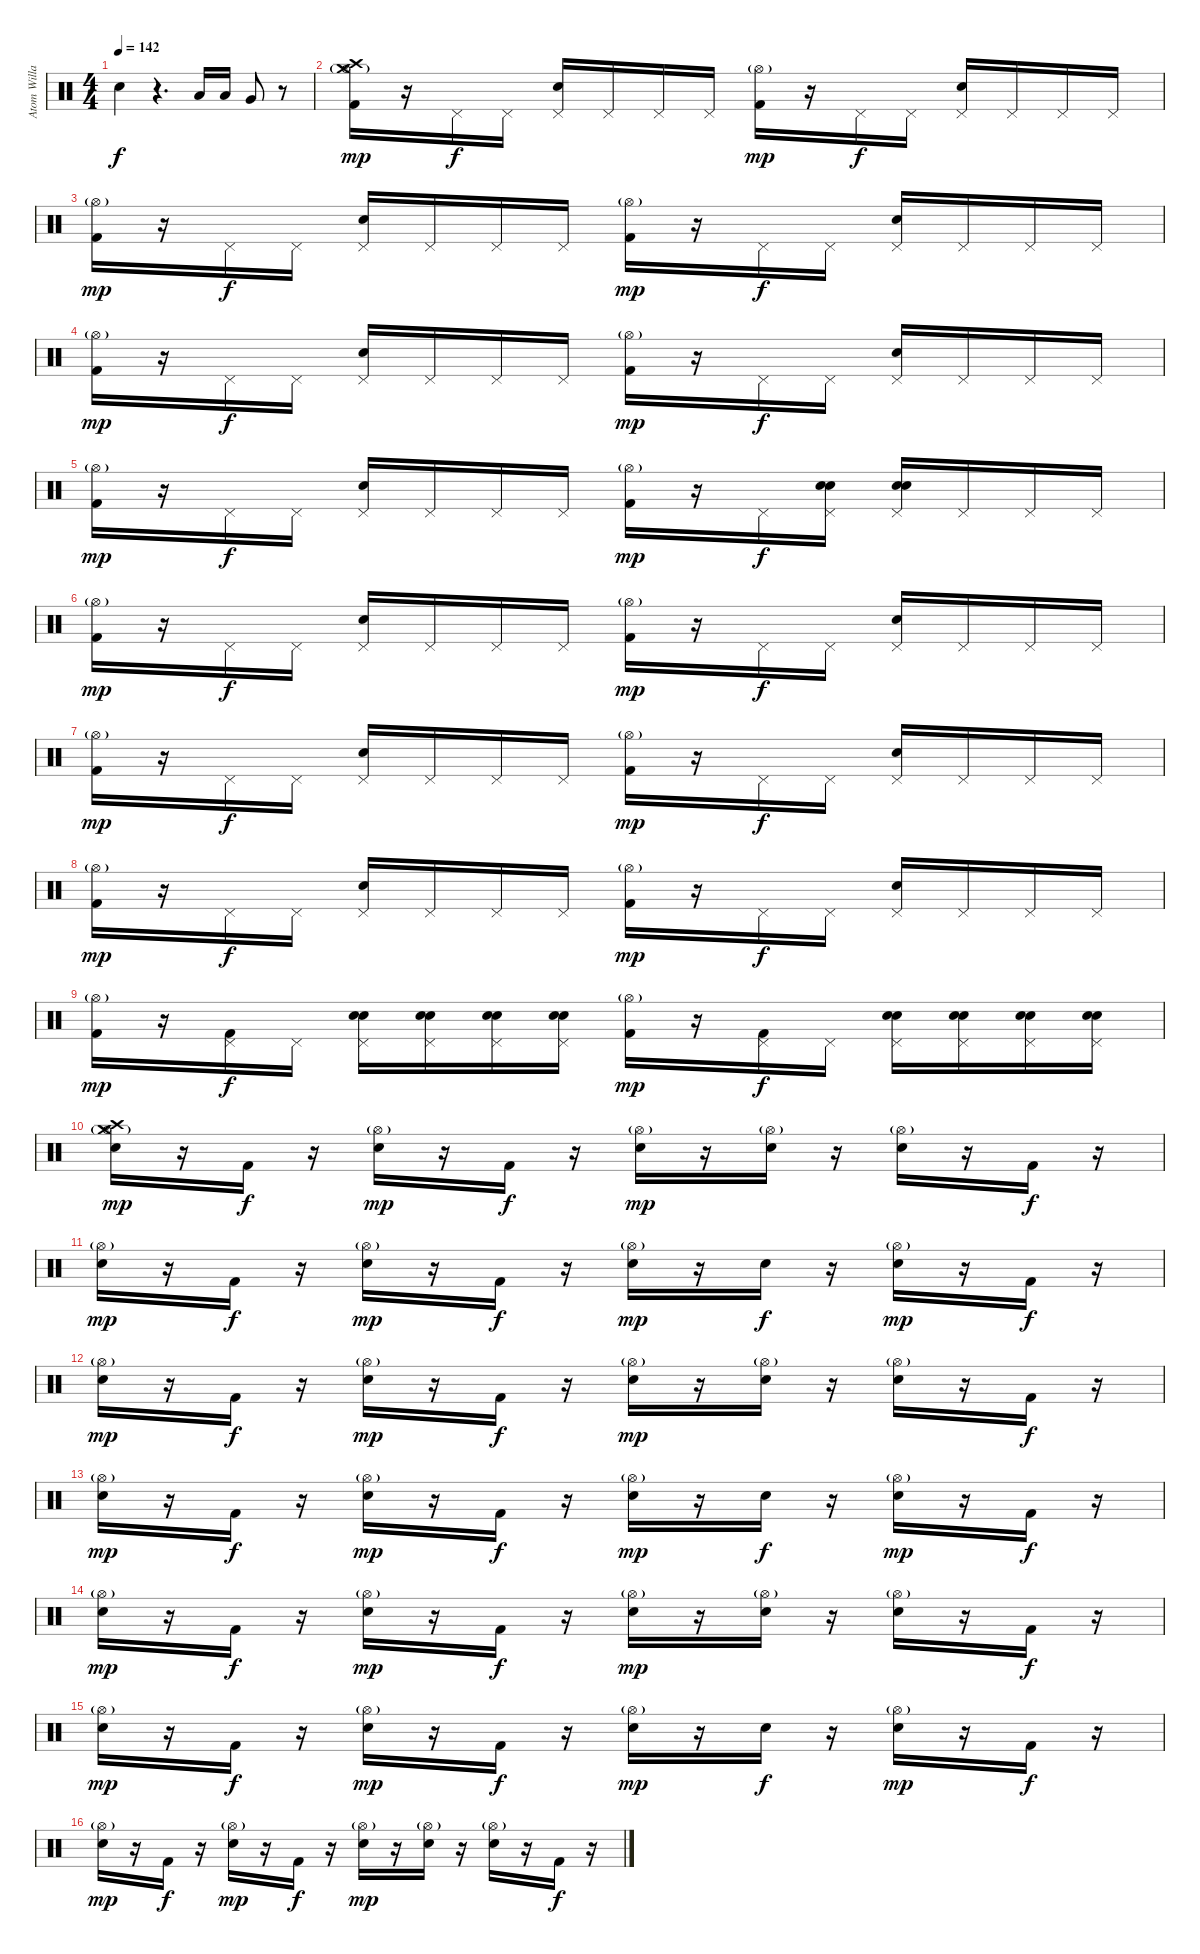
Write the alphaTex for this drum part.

\track ("Atom Willard" "Atom Willa") {instrument percussion}
\staff {score}
\articulation defaults
\ts (4 4)
\tempo 142
\clef neutral
\ks c "Electric Snare (hit)".4{dy f}
r.4{d} "Low Tom (hit)".16 "Low Tom (hit)".16 "Very Low Tom (hit)".8 r.8 |
("Crash high (hit)" "Crash medium (hit)" "Hi-Hat (open)"{g} "Kick (hit) 2").16{dy mp} r.16 "Pedal Hi-Hat (hit)".16{dy f} "Pedal Hi-Hat (hit)".16 ("Pedal Hi-Hat (hit)" "Electric Snare (hit)").16 "Pedal Hi-Hat (hit)".16 "Pedal Hi-Hat (hit)".16 "Pedal Hi-Hat (hit)".16 ("Hi-Hat (open)"{g} "Kick (hit) 2").16{dy mp} r.16 "Pedal Hi-Hat (hit)".16{dy f} "Pedal Hi-Hat (hit)".16 ("Pedal Hi-Hat (hit)" "Electric Snare (hit)").16 "Pedal Hi-Hat (hit)".16 "Pedal Hi-Hat (hit)".16 "Pedal Hi-Hat (hit)".16 |
("Hi-Hat (open)"{g} "Kick (hit) 2").16{dy mp} r.16 "Pedal Hi-Hat (hit)".16{dy f} "Pedal Hi-Hat (hit)".16 ("Pedal Hi-Hat (hit)" "Electric Snare (hit)").16 "Pedal Hi-Hat (hit)".16 "Pedal Hi-Hat (hit)".16 "Pedal Hi-Hat (hit)".16 ("Hi-Hat (open)"{g} "Kick (hit) 2").16{dy mp} r.16 "Pedal Hi-Hat (hit)".16{dy f} "Pedal Hi-Hat (hit)".16 ("Pedal Hi-Hat (hit)" "Electric Snare (hit)").16 "Pedal Hi-Hat (hit)".16 "Pedal Hi-Hat (hit)".16 "Pedal Hi-Hat (hit)".16 |
("Hi-Hat (open)"{g} "Kick (hit) 2").16{dy mp} r.16 "Pedal Hi-Hat (hit)".16{dy f} "Pedal Hi-Hat (hit)".16 ("Pedal Hi-Hat (hit)" "Electric Snare (hit)").16 "Pedal Hi-Hat (hit)".16 "Pedal Hi-Hat (hit)".16 "Pedal Hi-Hat (hit)".16 ("Hi-Hat (open)"{g} "Kick (hit) 2").16{dy mp} r.16 "Pedal Hi-Hat (hit)".16{dy f} "Pedal Hi-Hat (hit)".16 ("Pedal Hi-Hat (hit)" "Electric Snare (hit)").16 "Pedal Hi-Hat (hit)".16 "Pedal Hi-Hat (hit)".16 "Pedal Hi-Hat (hit)".16 |
("Hi-Hat (open)"{g} "Kick (hit) 2").16{dy mp} r.16 "Pedal Hi-Hat (hit)".16{dy f} "Pedal Hi-Hat (hit)".16 ("Pedal Hi-Hat (hit)" "Electric Snare (hit)").16 "Pedal Hi-Hat (hit)".16 "Pedal Hi-Hat (hit)".16 "Pedal Hi-Hat (hit)".16 ("Hi-Hat (open)"{g} "Kick (hit) 2").16{dy mp} r.16 "Pedal Hi-Hat (hit)".16{dy f} ("Pedal Hi-Hat (hit)" "Snare (hit) 2" "Electric Snare (hit)").16 ("Pedal Hi-Hat (hit)" "Snare (hit) 2" "Electric Snare (hit)").16 "Pedal Hi-Hat (hit)".16 "Pedal Hi-Hat (hit)".16 "Pedal Hi-Hat (hit)".16 |
("Hi-Hat (open)"{g} "Kick (hit) 2").16{dy mp} r.16 "Pedal Hi-Hat (hit)".16{dy f} "Pedal Hi-Hat (hit)".16 ("Pedal Hi-Hat (hit)" "Electric Snare (hit)").16 "Pedal Hi-Hat (hit)".16 "Pedal Hi-Hat (hit)".16 "Pedal Hi-Hat (hit)".16 ("Hi-Hat (open)"{g} "Kick (hit) 2").16{dy mp} r.16 "Pedal Hi-Hat (hit)".16{dy f} "Pedal Hi-Hat (hit)".16 ("Pedal Hi-Hat (hit)" "Electric Snare (hit)").16 "Pedal Hi-Hat (hit)".16 "Pedal Hi-Hat (hit)".16 "Pedal Hi-Hat (hit)".16 |
("Hi-Hat (open)"{g} "Kick (hit) 2").16{dy mp} r.16 "Pedal Hi-Hat (hit)".16{dy f} "Pedal Hi-Hat (hit)".16 ("Pedal Hi-Hat (hit)" "Electric Snare (hit)").16 "Pedal Hi-Hat (hit)".16 "Pedal Hi-Hat (hit)".16 "Pedal Hi-Hat (hit)".16 ("Hi-Hat (open)"{g} "Kick (hit) 2").16{dy mp} r.16 "Pedal Hi-Hat (hit)".16{dy f} "Pedal Hi-Hat (hit)".16 ("Pedal Hi-Hat (hit)" "Electric Snare (hit)").16 "Pedal Hi-Hat (hit)".16 "Pedal Hi-Hat (hit)".16 "Pedal Hi-Hat (hit)".16 |
("Hi-Hat (open)"{g} "Kick (hit) 2").16{dy mp} r.16 "Pedal Hi-Hat (hit)".16{dy f} "Pedal Hi-Hat (hit)".16 ("Pedal Hi-Hat (hit)" "Electric Snare (hit)").16 "Pedal Hi-Hat (hit)".16 "Pedal Hi-Hat (hit)".16 "Pedal Hi-Hat (hit)".16 ("Hi-Hat (open)"{g} "Kick (hit) 2").16{dy mp} r.16 "Pedal Hi-Hat (hit)".16{dy f} "Pedal Hi-Hat (hit)".16 ("Pedal Hi-Hat (hit)" "Electric Snare (hit)").16 "Pedal Hi-Hat (hit)".16 "Pedal Hi-Hat (hit)".16 "Pedal Hi-Hat (hit)".16 |
("Hi-Hat (open)"{g} "Kick (hit) 2").16{dy mp} r.16 ("Pedal Hi-Hat (hit)" "Kick (hit) 2").16{dy f} "Pedal Hi-Hat (hit)".16 ("Pedal Hi-Hat (hit)" "Snare (hit) 2" "Electric Snare (hit)").16 ("Pedal Hi-Hat (hit)" "Snare (hit) 2" "Electric Snare (hit)").16 ("Pedal Hi-Hat (hit)" "Snare (hit) 2" "Electric Snare (hit)").16 ("Pedal Hi-Hat (hit)" "Snare (hit) 2" "Electric Snare (hit)").16 ("Hi-Hat (open)"{g} "Kick (hit) 2").16{dy mp} r.16 ("Pedal Hi-Hat (hit)" "Kick (hit) 2").16{dy f} "Pedal Hi-Hat (hit)".16 ("Pedal Hi-Hat (hit)" "Snare (hit) 2" "Electric Snare (hit)").16 ("Pedal Hi-Hat (hit)" "Snare (hit) 2" "Electric Snare (hit)").16 ("Pedal Hi-Hat (hit)" "Snare (hit) 2" "Electric Snare (hit)").16 ("Pedal Hi-Hat (hit)" "Snare (hit) 2" "Electric Snare (hit)").16 |
("Crash high (hit)" "Crash medium (hit)" "Hi-Hat (open)"{g} "Electric Snare (hit)").16{dy mp} r.16 "Kick (hit) 2".16{dy f} r.16 ("Hi-Hat (open)"{g} "Electric Snare (hit)").16{dy mp} r.16 "Kick (hit) 2".16{dy f} r.16 ("Hi-Hat (open)"{g} "Electric Snare (hit)").16{dy mp} r.16 ("Hi-Hat (open)"{g} "Electric Snare (hit)").16 r.16 ("Hi-Hat (open)"{g} "Electric Snare (hit)").16 r.16 "Kick (hit) 2".16{dy f} r.16 |
("Hi-Hat (open)"{g} "Electric Snare (hit)").16{dy mp} r.16 "Kick (hit) 2".16{dy f} r.16 ("Hi-Hat (open)"{g} "Electric Snare (hit)").16{dy mp} r.16 "Kick (hit) 2".16{dy f} r.16 ("Hi-Hat (open)"{g} "Electric Snare (hit)").16{dy mp} r.16 "Electric Snare (hit)".16{dy f} r.16 ("Hi-Hat (open)"{g} "Electric Snare (hit)").16{dy mp} r.16 "Kick (hit) 2".16{dy f} r.16 |
("Hi-Hat (open)"{g} "Electric Snare (hit)").16{dy mp} r.16 "Kick (hit) 2".16{dy f} r.16 ("Hi-Hat (open)"{g} "Electric Snare (hit)").16{dy mp} r.16 "Kick (hit) 2".16{dy f} r.16 ("Hi-Hat (open)"{g} "Electric Snare (hit)").16{dy mp} r.16 ("Hi-Hat (open)"{g} "Electric Snare (hit)").16 r.16 ("Hi-Hat (open)"{g} "Electric Snare (hit)").16 r.16 "Kick (hit) 2".16{dy f} r.16 |
("Hi-Hat (open)"{g} "Electric Snare (hit)").16{dy mp} r.16 "Kick (hit) 2".16{dy f} r.16 ("Hi-Hat (open)"{g} "Electric Snare (hit)").16{dy mp} r.16 "Kick (hit) 2".16{dy f} r.16 ("Hi-Hat (open)"{g} "Electric Snare (hit)").16{dy mp} r.16 "Electric Snare (hit)".16{dy f} r.16 ("Hi-Hat (open)"{g} "Electric Snare (hit)").16{dy mp} r.16 "Kick (hit) 2".16{dy f} r.16 |
("Hi-Hat (open)"{g} "Electric Snare (hit)").16{dy mp} r.16 "Kick (hit) 2".16{dy f} r.16 ("Hi-Hat (open)"{g} "Electric Snare (hit)").16{dy mp} r.16 "Kick (hit) 2".16{dy f} r.16 ("Hi-Hat (open)"{g} "Electric Snare (hit)").16{dy mp} r.16 ("Hi-Hat (open)"{g} "Electric Snare (hit)").16 r.16 ("Hi-Hat (open)"{g} "Electric Snare (hit)").16 r.16 "Kick (hit) 2".16{dy f} r.16 |
("Hi-Hat (open)"{g} "Electric Snare (hit)").16{dy mp} r.16 "Kick (hit) 2".16{dy f} r.16 ("Hi-Hat (open)"{g} "Electric Snare (hit)").16{dy mp} r.16 "Kick (hit) 2".16{dy f} r.16 ("Hi-Hat (open)"{g} "Electric Snare (hit)").16{dy mp} r.16 "Electric Snare (hit)".16{dy f} r.16 ("Hi-Hat (open)"{g} "Electric Snare (hit)").16{dy mp} r.16 "Kick (hit) 2".16{dy f} r.16 |
("Hi-Hat (open)"{g} "Electric Snare (hit)").16{dy mp} r.16 "Kick (hit) 2".16{dy f} r.16 ("Hi-Hat (open)"{g} "Electric Snare (hit)").16{dy mp} r.16 "Kick (hit) 2".16{dy f} r.16 ("Hi-Hat (open)"{g} "Electric Snare (hit)").16{dy mp} r.16 ("Hi-Hat (open)"{g} "Electric Snare (hit)").16 r.16 ("Hi-Hat (open)"{g} "Electric Snare (hit)").16 r.16 "Kick (hit) 2".16{dy f} r.16
